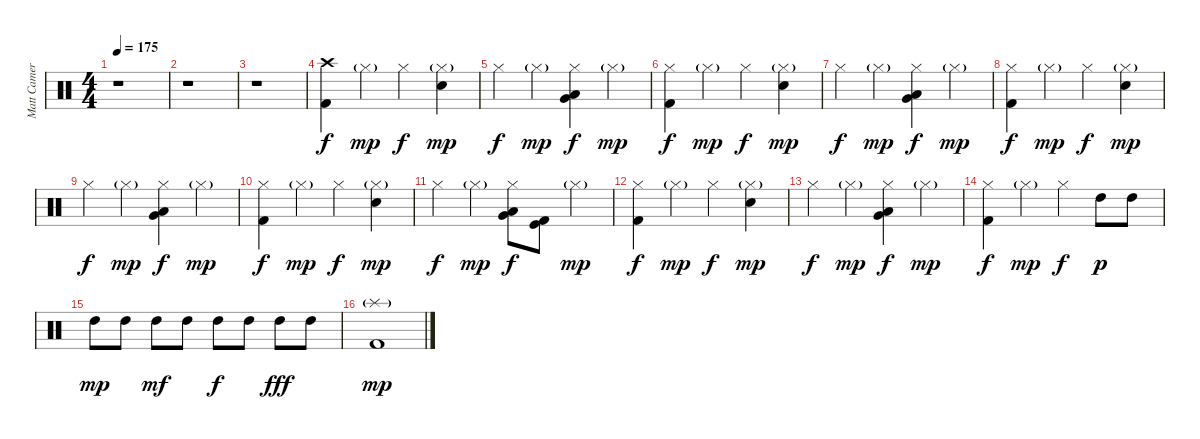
\track ("Matt Cameron Drum" "Matt Camer") {instrument percussion}
\staff {score}
\articulation defaults
\ts (4 4)
\tempo 175
\clef neutral
\ks c
r.1{dy f} |
r.1 |
r.1 |
("Crash high (hit)" "Kick (hit) 2").4 "Hi-Hat (closed)"{g}.4{dy mp} "Hi-Hat (closed)".4{dy f} ("Hi-Hat (closed)"{g} "Electric Snare (hit)").4{dy mp} |
"Hi-Hat (closed)".4{dy f} "Hi-Hat (closed)"{g}.4{dy mp} ("Hi-Hat (closed)" "Low Tom (hit)" "Very Low Tom (hit)").4{dy f} "Hi-Hat (closed)"{g}.4{dy mp} |
("Hi-Hat (closed)" "Kick (hit) 2").4{dy f} "Hi-Hat (closed)"{g}.4{dy mp} "Hi-Hat (closed)".4{dy f} ("Hi-Hat (closed)"{g} "Electric Snare (hit)").4{dy mp} |
"Hi-Hat (closed)".4{dy f} "Hi-Hat (closed)"{g}.4{dy mp} ("Hi-Hat (closed)" "Low Tom (hit)" "Very Low Tom (hit)").4{dy f} "Hi-Hat (closed)"{g}.4{dy mp} |
("Hi-Hat (closed)" "Kick (hit) 2").4{dy f} "Hi-Hat (closed)"{g}.4{dy mp} "Hi-Hat (closed)".4{dy f} ("Hi-Hat (closed)"{g} "Electric Snare (hit)").4{dy mp} |
"Hi-Hat (closed)".4{dy f} "Hi-Hat (closed)"{g}.4{dy mp} ("Hi-Hat (closed)" "Low Tom (hit)" "Very Low Tom (hit)").4{dy f} "Hi-Hat (closed)"{g}.4{dy mp} |
("Hi-Hat (closed)" "Kick (hit) 2").4{dy f} "Hi-Hat (closed)"{g}.4{dy mp} "Hi-Hat (closed)".4{dy f} ("Hi-Hat (closed)"{g} "Electric Snare (hit)").4{dy mp} |
"Hi-Hat (closed)".4{dy f} "Hi-Hat (closed)"{g}.4{dy mp} ("Hi-Hat (closed)" "Low Tom (hit)" "Very Low Tom (hit)").8{dy f} ("Kick (hit)" "Kick (hit) 2").8 "Hi-Hat (closed)"{g}.4{dy mp} |
("Hi-Hat (closed)" "Kick (hit) 2").4{dy f} "Hi-Hat (closed)"{g}.4{dy mp} "Hi-Hat (closed)".4{dy f} ("Hi-Hat (closed)"{g} "Electric Snare (hit)").4{dy mp} |
"Hi-Hat (closed)".4{dy f} "Hi-Hat (closed)"{g}.4{dy mp} ("Hi-Hat (closed)" "Low Tom (hit)" "Very Low Tom (hit)").4{dy f} "Hi-Hat (closed)"{g}.4{dy mp} |
("Hi-Hat (closed)" "Kick (hit) 2").4{dy f} "Hi-Hat (closed)"{g}.4{dy mp} "Hi-Hat (closed)".4{dy f} "High Tom (hit)".8{dy p} "High Tom (hit)".8 |
"High Tom (hit)".8{dy mp} "High Tom (hit)".8 "High Tom (hit)".8{dy mf} "High Tom (hit)".8 "High Tom (hit)".8{dy f} "High Tom (hit)".8 "High Tom (hit)".8{dy fff} "High Tom (hit)".8 |
("Splash (hit)"{g} "Kick (hit) 2").1{dy mp}
